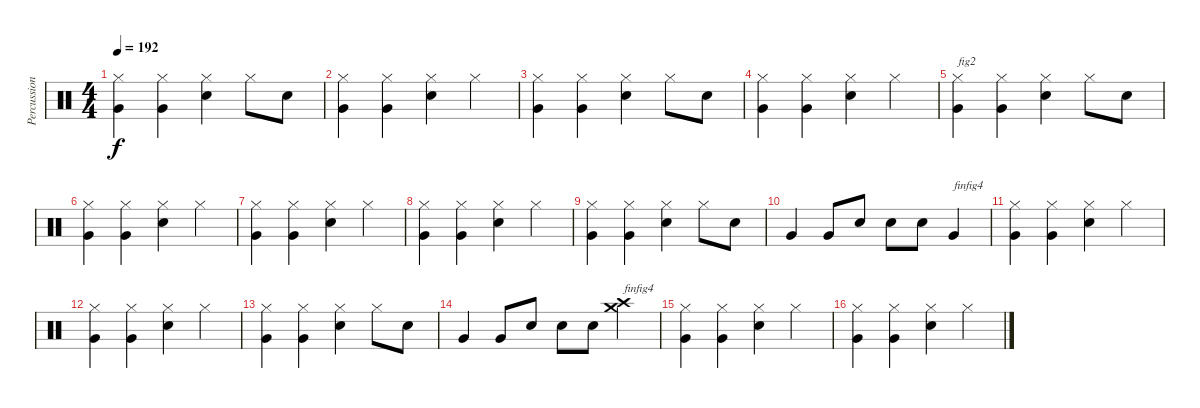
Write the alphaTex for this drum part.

\track ("Percussions" "Percussion") {instrument percussion}
\staff {score}
\articulation defaults
\ts (4 4)
\tempo 192
\clef neutral
\ks c
("Very Low Tom (hit)" "Hi-Hat (closed)").4{dy f} ("Very Low Tom (hit)" "Hi-Hat (closed)").4 ("Snare (hit) 2" "Hi-Hat (closed)").4 "Hi-Hat (closed)".8 "Snare (hit) 2".8 |
("Very Low Tom (hit)" "Hi-Hat (closed)").4 ("Very Low Tom (hit)" "Hi-Hat (closed)").4 ("Snare (hit) 2" "Hi-Hat (closed)").4 "Hi-Hat (closed)".4 |
("Very Low Tom (hit)" "Hi-Hat (closed)").4 ("Very Low Tom (hit)" "Hi-Hat (closed)").4 ("Snare (hit) 2" "Hi-Hat (closed)").4 "Hi-Hat (closed)".8 "Snare (hit) 2".8 |
("Very Low Tom (hit)" "Hi-Hat (closed)").4 ("Very Low Tom (hit)" "Hi-Hat (closed)").4 ("Snare (hit) 2" "Hi-Hat (closed)").4 "Hi-Hat (closed)".4 |
("Very Low Tom (hit)" "Hi-Hat (closed)").4{txt "fig2"} ("Very Low Tom (hit)" "Hi-Hat (closed)").4 ("Snare (hit) 2" "Hi-Hat (closed)").4 "Hi-Hat (closed)".8 "Snare (hit) 2".8 |
("Very Low Tom (hit)" "Hi-Hat (closed)").4 ("Very Low Tom (hit)" "Hi-Hat (closed)").4 ("Snare (hit) 2" "Hi-Hat (closed)").4 "Hi-Hat (closed)".4 |
("Very Low Tom (hit)" "Hi-Hat (closed)").4 ("Very Low Tom (hit)" "Hi-Hat (closed)").4 ("Snare (hit) 2" "Hi-Hat (closed)").4 "Hi-Hat (closed)".4 |
("Very Low Tom (hit)" "Hi-Hat (closed)").4 ("Very Low Tom (hit)" "Hi-Hat (closed)").4 ("Snare (hit) 2" "Hi-Hat (closed)").4 "Hi-Hat (closed)".4 |
("Very Low Tom (hit)" "Hi-Hat (closed)").4 ("Very Low Tom (hit)" "Hi-Hat (closed)").4 ("Snare (hit) 2" "Hi-Hat (closed)").4 "Hi-Hat (closed)".8 "Snare (hit) 2".8 |
"Very Low Tom (hit)".4 "Very Low Tom (hit)".8 "Snare (hit) 2".8 "Snare (hit) 2".8 "Snare (hit) 2".8 "Very Low Tom (hit)".4{txt "finfig4"} |
("Very Low Tom (hit)" "Hi-Hat (closed)").4 ("Very Low Tom (hit)" "Hi-Hat (closed)").4 ("Snare (hit) 2" "Hi-Hat (closed)").4 "Hi-Hat (closed)".4 |
("Very Low Tom (hit)" "Hi-Hat (closed)").4 ("Very Low Tom (hit)" "Hi-Hat (closed)").4 ("Snare (hit) 2" "Hi-Hat (closed)").4 "Hi-Hat (closed)".4 |
("Very Low Tom (hit)" "Hi-Hat (closed)").4 ("Very Low Tom (hit)" "Hi-Hat (closed)").4 ("Snare (hit) 2" "Hi-Hat (closed)").4 "Hi-Hat (closed)".8 "Snare (hit) 2".8 |
"Very Low Tom (hit)".4 "Very Low Tom (hit)".8 "Snare (hit) 2".8 "Snare (hit) 2".8 "Snare (hit) 2".8 ("Crash high (hit)" "Crash medium (hit)").4{txt "finfig4"} |
("Very Low Tom (hit)" "Hi-Hat (closed)").4 ("Very Low Tom (hit)" "Hi-Hat (closed)").4 ("Snare (hit) 2" "Hi-Hat (closed)").4 "Hi-Hat (closed)".4 |
("Very Low Tom (hit)" "Hi-Hat (closed)").4 ("Very Low Tom (hit)" "Hi-Hat (closed)").4 ("Snare (hit) 2" "Hi-Hat (closed)").4 "Hi-Hat (closed)".4
